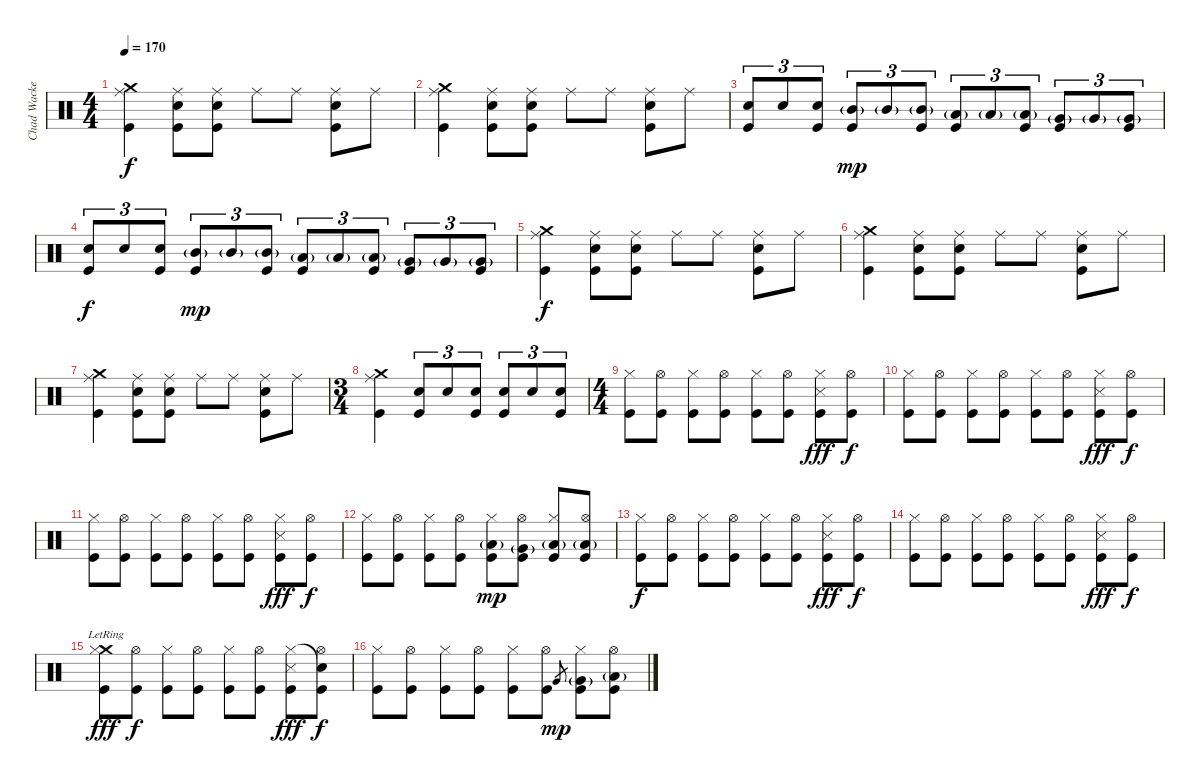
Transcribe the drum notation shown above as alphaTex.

\track ("Chad Wackerman - Drum's" "Chad Wacke") {instrument percussion}
\staff {score}
\articulation defaults
\ts (4 4)
\tempo 170
\clef neutral
\ks c
("Crash medium (hit)" "Ride (middle)" "Kick (hit)").4{dy f} ("Snare (hit) 2" "Ride (middle)" "Kick (hit)").8 ("Snare (hit) 2" "Ride (middle)" "Kick (hit)").8 "Ride (middle)".8 "Ride (middle)".8 ("Snare (hit) 2" "Ride (middle)" "Kick (hit)").8 "Ride (middle)".8 |
("Crash medium (hit)" "Ride (middle)" "Kick (hit)").4 ("Snare (hit) 2" "Ride (middle)" "Kick (hit)").8 ("Snare (hit) 2" "Ride (middle)" "Kick (hit)").8 "Ride (middle)".8 "Ride (middle)".8 ("Snare (hit) 2" "Ride (middle)" "Kick (hit)").8 "Ride (middle)".8 |
("Snare (hit) 2" "Kick (hit)").8{tu (3 2)} "Snare (hit) 2".8{tu (3 2)} ("Snare (hit) 2" "Kick (hit)").8{tu (3 2)} ("Mid Tom (hit)"{g} "Kick (hit)").8{tu (3 2) dy mp} "Mid Tom (hit)"{g}.8{tu (3 2)} ("Mid Tom (hit)"{g} "Kick (hit)").8{tu (3 2)} ("Low Tom (hit)"{g} "Kick (hit)").8{tu (3 2)} "Low Tom (hit)"{g}.8{tu (3 2)} ("Low Tom (hit)"{g} "Kick (hit)").8{tu (3 2)} ("Very Low Tom (hit)"{g} "Kick (hit)").8{tu (3 2)} "Very Low Tom (hit)"{g}.8{tu (3 2)} ("Very Low Tom (hit)"{g} "Kick (hit)").8{tu (3 2)} |
("Snare (hit) 2" "Kick (hit)").8{tu (3 2) dy f} "Snare (hit) 2".8{tu (3 2)} ("Snare (hit) 2" "Kick (hit)").8{tu (3 2)} ("Mid Tom (hit)"{g} "Kick (hit)").8{tu (3 2) dy mp} "Mid Tom (hit)"{g}.8{tu (3 2)} ("Mid Tom (hit)"{g} "Kick (hit)").8{tu (3 2)} ("Low Tom (hit)"{g} "Kick (hit)").8{tu (3 2)} "Low Tom (hit)"{g}.8{tu (3 2)} ("Low Tom (hit)"{g} "Kick (hit)").8{tu (3 2)} ("Very Low Tom (hit)"{g} "Kick (hit)").8{tu (3 2)} "Very Low Tom (hit)"{g}.8{tu (3 2)} ("Very Low Tom (hit)"{g} "Kick (hit)").8{tu (3 2)} |
("Crash medium (hit)" "Ride (middle)" "Kick (hit)").4{dy f} ("Snare (hit) 2" "Ride (middle)" "Kick (hit)").8 ("Snare (hit) 2" "Ride (middle)" "Kick (hit)").8 "Ride (middle)".8 "Ride (middle)".8 ("Snare (hit) 2" "Ride (middle)" "Kick (hit)").8 "Ride (middle)".8 |
("Crash medium (hit)" "Ride (middle)" "Kick (hit)").4 ("Snare (hit) 2" "Ride (middle)" "Kick (hit)").8 ("Snare (hit) 2" "Ride (middle)" "Kick (hit)").8 "Ride (middle)".8 "Ride (middle)".8 ("Snare (hit) 2" "Ride (middle)" "Kick (hit)").8 "Ride (middle)".8 |
("Crash medium (hit)" "Ride (middle)" "Kick (hit)").4 ("Snare (hit) 2" "Ride (middle)" "Kick (hit)").8 ("Snare (hit) 2" "Ride (middle)" "Kick (hit)").8 "Ride (middle)".8 "Ride (middle)".8 ("Snare (hit) 2" "Ride (middle)" "Kick (hit)").8 "Ride (middle)".8 |
\ts (3 4)
("Crash medium (hit)" "Ride (middle)" "Kick (hit)").4 ("Snare (hit) 2" "Kick (hit)").8{tu (3 2)} "Snare (hit) 2".8{tu (3 2)} ("Snare (hit) 2" "Kick (hit)").8{tu (3 2)} ("Snare (hit) 2" "Kick (hit)").8{tu (3 2)} "Snare (hit) 2".8{tu (3 2)} ("Snare (hit) 2" "Kick (hit)").8{tu (3 2)} |
\ts (4 4)
("Hi-Hat (closed)" "Kick (hit)").8 ("Hi-Hat (open)" "Kick (hit)").8 ("Hi-Hat (closed)" "Kick (hit)").8 ("Hi-Hat (open)" "Kick (hit)").8 ("Hi-Hat (closed)" "Kick (hit)").8 ("Hi-Hat (open)" "Kick (hit)").8 ("Hi-Hat (closed)" "Metronome (hit)" "Kick (hit)").8{dy fff} ("Hi-Hat (open)" "Kick (hit)").8{dy f} |
("Hi-Hat (closed)" "Kick (hit)").8 ("Hi-Hat (open)" "Kick (hit)").8 ("Hi-Hat (closed)" "Kick (hit)").8 ("Hi-Hat (open)" "Kick (hit)").8 ("Hi-Hat (closed)" "Kick (hit)").8 ("Hi-Hat (open)" "Kick (hit)").8 ("Hi-Hat (closed)" "Metronome (hit)" "Kick (hit)").8{dy fff} ("Hi-Hat (open)" "Kick (hit)").8{dy f} |
("Hi-Hat (closed)" "Kick (hit)").8 ("Hi-Hat (open)" "Kick (hit)").8 ("Hi-Hat (closed)" "Kick (hit)").8 ("Hi-Hat (open)" "Kick (hit)").8 ("Hi-Hat (closed)" "Kick (hit)").8 ("Hi-Hat (open)" "Kick (hit)").8 ("Hi-Hat (closed)" "Metronome (hit)" "Kick (hit)").8{dy fff} ("Hi-Hat (open)" "Kick (hit)").8{dy f} |
("Hi-Hat (closed)" "Kick (hit)").8 ("Hi-Hat (open)" "Kick (hit)").8 ("Hi-Hat (closed)" "Kick (hit)").8 ("Hi-Hat (open)" "Kick (hit)").8 ("Low Tom (hit)"{g} "Hi-Hat (closed)" "Kick (hit)").8{dy mp} ("Very Low Tom (hit)"{g} "Hi-Hat (open)" "Kick (hit)").8 ("Low Floor Tom (hit)"{g} "Hi-Hat (closed)" "Kick (hit)").8 ("Low Floor Tom (hit)"{g} "Hi-Hat (open)" "Kick (hit)").8 |
("Hi-Hat (closed)" "Kick (hit)").8{dy f} ("Hi-Hat (open)" "Kick (hit)").8 ("Hi-Hat (closed)" "Kick (hit)").8 ("Hi-Hat (open)" "Kick (hit)").8 ("Hi-Hat (closed)" "Kick (hit)").8 ("Hi-Hat (open)" "Kick (hit)").8 ("Hi-Hat (closed)" "Metronome (hit)" "Kick (hit)").8{dy fff} ("Hi-Hat (open)" "Kick (hit)").8{dy f} |
("Hi-Hat (closed)" "Kick (hit)").8 ("Hi-Hat (open)" "Kick (hit)").8 ("Hi-Hat (closed)" "Kick (hit)").8 ("Hi-Hat (open)" "Kick (hit)").8 ("Hi-Hat (closed)" "Kick (hit)").8 ("Hi-Hat (open)" "Kick (hit)").8 ("Hi-Hat (closed)" "Metronome (hit)" "Kick (hit)").8{dy fff} ("Hi-Hat (open)" "Kick (hit)").8{dy f} |
("Crash medium (hit)"{lr} "Hi-Hat (closed)" "Kick (hit)").8{dy fff} ("Hi-Hat (open)" "Kick (hit)").8{dy f} ("Hi-Hat (closed)" "Kick (hit)").8 ("Hi-Hat (open)" "Kick (hit)").8 ("Hi-Hat (closed)" "Kick (hit)").8 ("Hi-Hat (open)" "Kick (hit)").8 ("Hi-Hat (closed)" "Metronome (hit)" "Kick (hit)").8{dy fff} ("Snare (hit)"{t} "Hi-Hat (open)" "Kick (hit)").8{dy f} |
("Hi-Hat (closed)" "Kick (hit)").8 ("Hi-Hat (open)" "Kick (hit)").8 ("Hi-Hat (closed)" "Kick (hit)").8 ("Hi-Hat (open)" "Kick (hit)").8 ("Hi-Hat (closed)" "Kick (hit)").8 ("Hi-Hat (open)" "Kick (hit)").8 "Very Low Tom (hit)".8{gr dy mp} ("Very Low Tom (hit)"{g} "Hi-Hat (closed)" "Kick (hit)").8 ("Low Floor Tom (hit)"{g} "Hi-Hat (open)" "Kick (hit)").8
